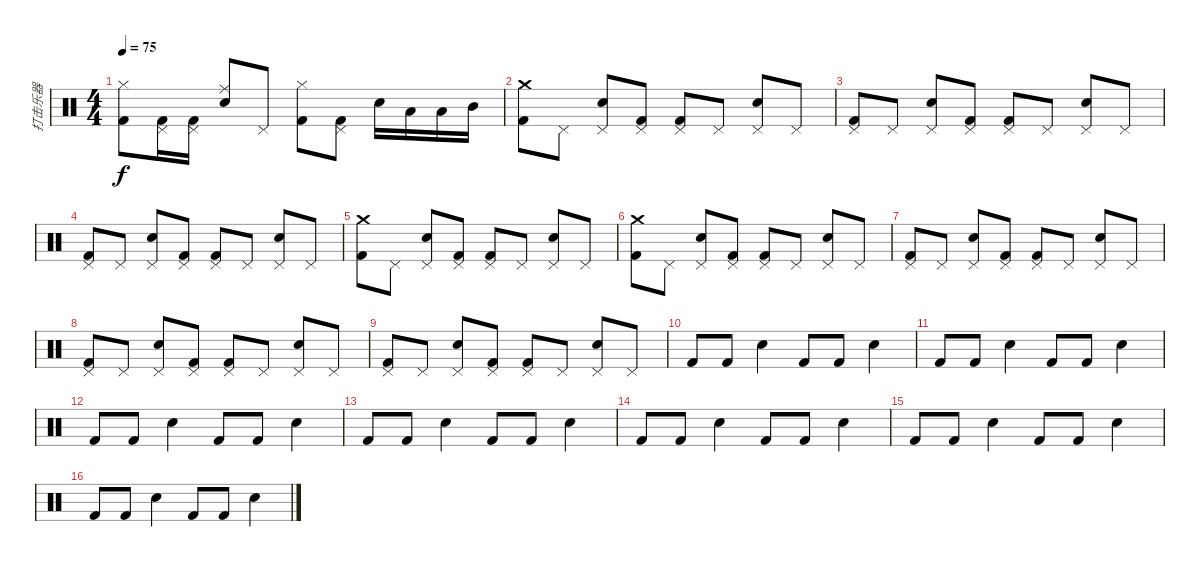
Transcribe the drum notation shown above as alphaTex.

\track ("打击乐器" "打击乐器") {instrument percussion}
\staff {score}
\articulation defaults
\ts (4 4)
\tempo 75
\clef neutral
\ks c
("Hi-Hat (closed)" "Kick (hit) 2").8{dy f} ("Pedal Hi-Hat (hit)" "Kick (hit) 2").16 ("Pedal Hi-Hat (hit)" "Kick (hit) 2").16 ("Ride (middle)" "Electric Snare (hit)").8 "Pedal Hi-Hat (hit)".8 ("Hi-Hat (closed)" "Kick (hit) 2").8 ("Pedal Hi-Hat (hit)" "Kick (hit) 2").8 "Electric Snare (hit)".16 "Low Tom (hit)".16 "Low Tom (hit)".16 "Mid Tom (hit)".16 |
("Crash medium (hit)" "Kick (hit) 2").8 "Pedal Hi-Hat (hit)".8 ("Pedal Hi-Hat (hit)" "Electric Snare (hit)").8 ("Pedal Hi-Hat (hit)" "Kick (hit) 2").8 ("Pedal Hi-Hat (hit)" "Kick (hit) 2").8 "Pedal Hi-Hat (hit)".8 ("Pedal Hi-Hat (hit)" "Electric Snare (hit)").8 "Pedal Hi-Hat (hit)".8 |
("Pedal Hi-Hat (hit)" "Kick (hit) 2").8 "Pedal Hi-Hat (hit)".8 ("Pedal Hi-Hat (hit)" "Electric Snare (hit)").8 ("Pedal Hi-Hat (hit)" "Kick (hit) 2").8 ("Pedal Hi-Hat (hit)" "Kick (hit) 2").8 "Pedal Hi-Hat (hit)".8 ("Pedal Hi-Hat (hit)" "Electric Snare (hit)").8 "Pedal Hi-Hat (hit)".8 |
("Pedal Hi-Hat (hit)" "Kick (hit) 2").8 "Pedal Hi-Hat (hit)".8 ("Pedal Hi-Hat (hit)" "Electric Snare (hit)").8 ("Pedal Hi-Hat (hit)" "Kick (hit) 2").8 ("Pedal Hi-Hat (hit)" "Kick (hit) 2").8 "Pedal Hi-Hat (hit)".8 ("Pedal Hi-Hat (hit)" "Electric Snare (hit)").8 "Pedal Hi-Hat (hit)".8 |
("Crash medium (hit)" "Kick (hit) 2").8 "Pedal Hi-Hat (hit)".8 ("Pedal Hi-Hat (hit)" "Electric Snare (hit)").8 ("Pedal Hi-Hat (hit)" "Kick (hit) 2").8 ("Pedal Hi-Hat (hit)" "Kick (hit) 2").8 "Pedal Hi-Hat (hit)".8 ("Pedal Hi-Hat (hit)" "Electric Snare (hit)").8 "Pedal Hi-Hat (hit)".8 |
("Crash medium (hit)" "Kick (hit) 2").8 "Pedal Hi-Hat (hit)".8 ("Pedal Hi-Hat (hit)" "Electric Snare (hit)").8 ("Pedal Hi-Hat (hit)" "Kick (hit) 2").8 ("Pedal Hi-Hat (hit)" "Kick (hit) 2").8 "Pedal Hi-Hat (hit)".8 ("Pedal Hi-Hat (hit)" "Electric Snare (hit)").8 "Pedal Hi-Hat (hit)".8 |
("Pedal Hi-Hat (hit)" "Kick (hit) 2").8 "Pedal Hi-Hat (hit)".8 ("Pedal Hi-Hat (hit)" "Electric Snare (hit)").8 ("Pedal Hi-Hat (hit)" "Kick (hit) 2").8 ("Pedal Hi-Hat (hit)" "Kick (hit) 2").8 "Pedal Hi-Hat (hit)".8 ("Pedal Hi-Hat (hit)" "Electric Snare (hit)").8 "Pedal Hi-Hat (hit)".8 |
("Pedal Hi-Hat (hit)" "Kick (hit) 2").8 "Pedal Hi-Hat (hit)".8 ("Pedal Hi-Hat (hit)" "Electric Snare (hit)").8 ("Pedal Hi-Hat (hit)" "Kick (hit) 2").8 ("Pedal Hi-Hat (hit)" "Kick (hit) 2").8 "Pedal Hi-Hat (hit)".8 ("Pedal Hi-Hat (hit)" "Electric Snare (hit)").8 "Pedal Hi-Hat (hit)".8 |
("Pedal Hi-Hat (hit)" "Kick (hit) 2").8 "Pedal Hi-Hat (hit)".8 ("Pedal Hi-Hat (hit)" "Electric Snare (hit)").8 ("Pedal Hi-Hat (hit)" "Kick (hit) 2").8 ("Pedal Hi-Hat (hit)" "Kick (hit) 2").8 "Pedal Hi-Hat (hit)".8 ("Pedal Hi-Hat (hit)" "Electric Snare (hit)").8 "Pedal Hi-Hat (hit)".8 |
"Kick (hit) 2".8 "Kick (hit) 2".8 "Snare (hit) 2".4 "Kick (hit) 2".8 "Kick (hit) 2".8 "Snare (hit) 2".4 |
"Kick (hit) 2".8 "Kick (hit) 2".8 "Snare (hit) 2".4 "Kick (hit) 2".8 "Kick (hit) 2".8 "Snare (hit) 2".4 |
"Kick (hit) 2".8 "Kick (hit) 2".8 "Snare (hit) 2".4 "Kick (hit) 2".8 "Kick (hit) 2".8 "Snare (hit) 2".4 |
"Kick (hit) 2".8 "Kick (hit) 2".8 "Snare (hit) 2".4 "Kick (hit) 2".8 "Kick (hit) 2".8 "Snare (hit) 2".4 |
"Kick (hit) 2".8 "Kick (hit) 2".8 "Snare (hit) 2".4 "Kick (hit) 2".8 "Kick (hit) 2".8 "Snare (hit) 2".4 |
"Kick (hit) 2".8 "Kick (hit) 2".8 "Snare (hit) 2".4 "Kick (hit) 2".8 "Kick (hit) 2".8 "Snare (hit) 2".4 |
"Kick (hit) 2".8 "Kick (hit) 2".8 "Snare (hit) 2".4 "Kick (hit) 2".8 "Kick (hit) 2".8 "Snare (hit) 2".4
